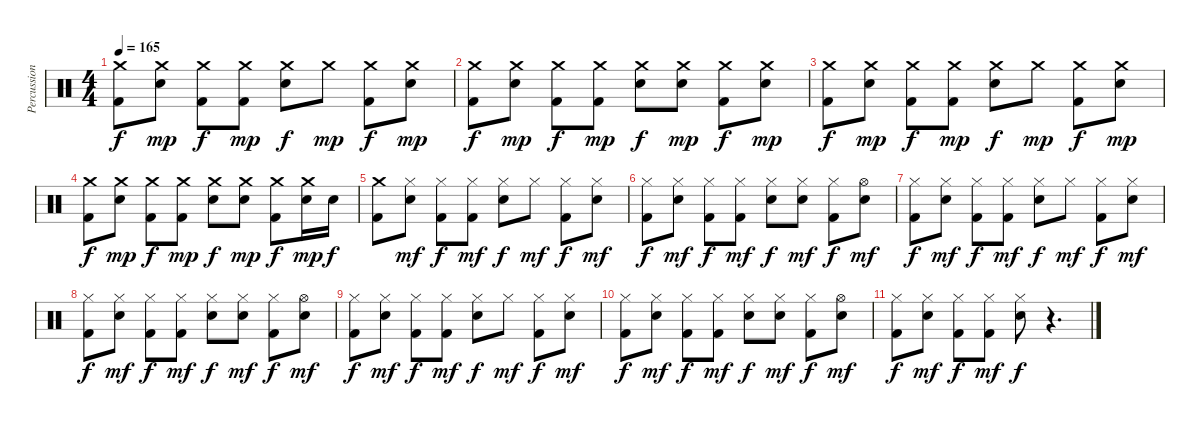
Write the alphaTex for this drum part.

\track ("Percussion" "Percussion") {instrument percussion}
\staff {score}
\articulation defaults
\ts (4 4)
\tempo 165
\clef neutral
\ks c
("Crash medium (hit)" "Kick (hit) 2").8{dy f} ("Crash medium (hit)" "Snare (hit) 2").8{dy mp} ("Crash medium (hit)" "Kick (hit) 2").8{dy f} ("Crash medium (hit)" "Kick (hit) 2").8{dy mp} ("Crash medium (hit)" "Snare (hit) 2").8{dy f} "Crash medium (hit)".8{dy mp} ("Crash medium (hit)" "Kick (hit) 2").8{dy f} ("Crash medium (hit)" "Snare (hit) 2").8{dy mp} |
("Crash medium (hit)" "Kick (hit) 2").8{dy f} ("Crash medium (hit)" "Snare (hit) 2").8{dy mp} ("Crash medium (hit)" "Kick (hit) 2").8{dy f} ("Crash medium (hit)" "Kick (hit) 2").8{dy mp} ("Crash medium (hit)" "Snare (hit) 2").8{dy f} ("Crash medium (hit)" "Snare (hit) 2").8{dy mp} ("Crash medium (hit)" "Kick (hit) 2").8{dy f} ("Crash medium (hit)" "Snare (hit) 2").8{dy mp} |
("Crash medium (hit)" "Kick (hit) 2").8{dy f} ("Crash medium (hit)" "Snare (hit) 2").8{dy mp} ("Crash medium (hit)" "Kick (hit) 2").8{dy f} ("Crash medium (hit)" "Kick (hit) 2").8{dy mp} ("Crash medium (hit)" "Snare (hit) 2").8{dy f} "Crash medium (hit)".8{dy mp} ("Crash medium (hit)" "Kick (hit) 2").8{dy f} ("Crash medium (hit)" "Snare (hit) 2").8{dy mp} |
("Crash medium (hit)" "Kick (hit) 2").8{dy f} ("Crash medium (hit)" "Snare (hit) 2").8{dy mp} ("Crash medium (hit)" "Kick (hit) 2").8{dy f} ("Crash medium (hit)" "Kick (hit) 2").8{dy mp} ("Crash medium (hit)" "Snare (hit) 2").8{dy f} ("Crash medium (hit)" "Snare (hit) 2").8{dy mp} ("Crash medium (hit)" "Kick (hit) 2").8{dy f} ("Crash medium (hit)" "Snare (hit) 2").16{dy mp} "Snare (hit) 2".16{dy f} |
("Crash medium (hit)" "Kick (hit) 2").8 ("Hi-Hat (closed)" "Snare (hit) 2").8{dy mf} ("Hi-Hat (closed)" "Kick (hit) 2").8{dy f} ("Hi-Hat (closed)" "Kick (hit) 2").8{dy mf} ("Hi-Hat (closed)" "Snare (hit) 2").8{dy f} "Hi-Hat (closed)".8{dy mf} ("Hi-Hat (closed)" "Kick (hit) 2").8{dy f} ("Hi-Hat (closed)" "Snare (hit) 2").8{dy mf} |
("Hi-Hat (closed)" "Kick (hit) 2").8{dy f} ("Hi-Hat (closed)" "Snare (hit) 2").8{dy mf} ("Hi-Hat (closed)" "Kick (hit) 2").8{dy f} ("Hi-Hat (closed)" "Kick (hit) 2").8{dy mf} ("Hi-Hat (closed)" "Snare (hit) 2").8{dy f} ("Hi-Hat (closed)" "Snare (hit) 2").8{dy mf} ("Hi-Hat (closed)" "Kick (hit) 2").8{dy f} ("Hi-Hat (open)" "Snare (hit) 2").8{dy mf} |
("Hi-Hat (closed)" "Kick (hit) 2").8{dy f} ("Hi-Hat (closed)" "Snare (hit) 2").8{dy mf} ("Hi-Hat (closed)" "Kick (hit) 2").8{dy f} ("Hi-Hat (closed)" "Kick (hit) 2").8{dy mf} ("Hi-Hat (closed)" "Snare (hit) 2").8{dy f} "Hi-Hat (closed)".8{dy mf} ("Hi-Hat (closed)" "Kick (hit) 2").8{dy f} ("Hi-Hat (closed)" "Snare (hit) 2").8{dy mf} |
("Hi-Hat (closed)" "Kick (hit) 2").8{dy f} ("Hi-Hat (closed)" "Snare (hit) 2").8{dy mf} ("Hi-Hat (closed)" "Kick (hit) 2").8{dy f} ("Hi-Hat (closed)" "Kick (hit) 2").8{dy mf} ("Hi-Hat (closed)" "Snare (hit) 2").8{dy f} ("Hi-Hat (closed)" "Snare (hit) 2").8{dy mf} ("Hi-Hat (closed)" "Kick (hit) 2").8{dy f} ("Hi-Hat (open)" "Snare (hit) 2").8{dy mf} |
("Hi-Hat (closed)" "Kick (hit) 2").8{dy f} ("Hi-Hat (closed)" "Snare (hit) 2").8{dy mf} ("Hi-Hat (closed)" "Kick (hit) 2").8{dy f} ("Hi-Hat (closed)" "Kick (hit) 2").8{dy mf} ("Hi-Hat (closed)" "Snare (hit) 2").8{dy f} "Hi-Hat (closed)".8{dy mf} ("Hi-Hat (closed)" "Kick (hit) 2").8{dy f} ("Hi-Hat (closed)" "Snare (hit) 2").8{dy mf} |
("Hi-Hat (closed)" "Kick (hit) 2").8{dy f} ("Hi-Hat (closed)" "Snare (hit) 2").8{dy mf} ("Hi-Hat (closed)" "Kick (hit) 2").8{dy f} ("Hi-Hat (closed)" "Kick (hit) 2").8{dy mf} ("Hi-Hat (closed)" "Snare (hit) 2").8{dy f} ("Hi-Hat (closed)" "Snare (hit) 2").8{dy mf} ("Hi-Hat (closed)" "Kick (hit) 2").8{dy f} ("Hi-Hat (open)" "Snare (hit) 2").8{dy mf} |
("Hi-Hat (closed)" "Kick (hit) 2").8{dy f} ("Hi-Hat (closed)" "Snare (hit) 2").8{dy mf} ("Hi-Hat (closed)" "Kick (hit) 2").8{dy f} ("Hi-Hat (closed)" "Kick (hit) 2").8{dy mf} ("Hi-Hat (closed)" "Snare (hit) 2").8{dy f} r.4{d}
